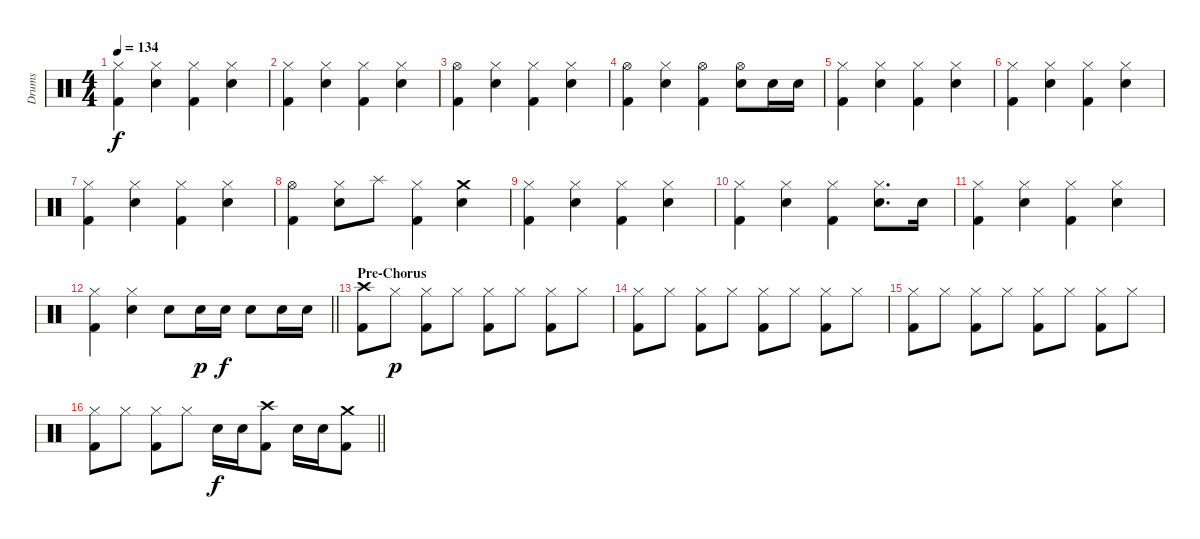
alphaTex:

\track ("Drums" "Drums") {instrument percussion}
\staff {score}
\articulation defaults
\ts (4 4)
\tempo 134
\clef neutral
\ks c
("Hi-Hat (closed)" "Kick (hit) 2").4{dy f} ("Hi-Hat (closed)" "Snare (hit) 2").4 ("Hi-Hat (closed)" "Kick (hit) 2").4 ("Hi-Hat (closed)" "Snare (hit) 2").4 |
("Hi-Hat (closed)" "Kick (hit) 2").4 ("Hi-Hat (closed)" "Snare (hit) 2").4 ("Hi-Hat (closed)" "Kick (hit) 2").4 ("Hi-Hat (closed)" "Snare (hit) 2").4 |
("Hi-Hat (open)" "Kick (hit) 2").4 ("Hi-Hat (closed)" "Snare (hit) 2").4 ("Hi-Hat (closed)" "Kick (hit) 2").4 ("Hi-Hat (closed)" "Snare (hit) 2").4 |
("Hi-Hat (open)" "Kick (hit) 2").4 ("Hi-Hat (closed)" "Snare (hit) 2").4 ("Hi-Hat (open)" "Kick (hit) 2").4 ("Hi-Hat (open)" "Snare (hit) 2").8 "Snare (hit) 2".16 "Snare (hit) 2".16 |
("Hi-Hat (closed)" "Kick (hit) 2").4 ("Hi-Hat (closed)" "Snare (hit) 2").4 ("Hi-Hat (closed)" "Kick (hit) 2").4 ("Hi-Hat (closed)" "Snare (hit) 2").4 |
("Hi-Hat (closed)" "Kick (hit) 2").4 ("Hi-Hat (closed)" "Snare (hit) 2").4 ("Hi-Hat (closed)" "Kick (hit) 2").4 ("Hi-Hat (closed)" "Snare (hit) 2").4 |
("Hi-Hat (closed)" "Kick (hit) 2").4 ("Hi-Hat (closed)" "Snare (hit) 2").4 ("Hi-Hat (closed)" "Kick (hit) 2").4 ("Hi-Hat (closed)" "Snare (hit) 2").4 |
("Hi-Hat (open)" "Kick (hit) 2").4 ("Hi-Hat (closed)" "Snare (hit) 2").8 "Splash (hit)".8 ("Hi-Hat (closed)" "Kick (hit) 2").4 ("Crash medium (hit)" "Snare (hit) 2").4 |
("Hi-Hat (closed)" "Kick (hit) 2").4 ("Hi-Hat (closed)" "Snare (hit) 2").4 ("Hi-Hat (closed)" "Kick (hit) 2").4 ("Hi-Hat (closed)" "Snare (hit) 2").4 |
("Hi-Hat (closed)" "Kick (hit) 2").4 ("Hi-Hat (closed)" "Snare (hit) 2").4 ("Hi-Hat (closed)" "Kick (hit) 2").4 ("Hi-Hat (closed)" "Snare (hit) 2").8{d} "Snare (hit) 2".16 |
("Hi-Hat (closed)" "Kick (hit) 2").4 ("Hi-Hat (closed)" "Snare (hit) 2").4 ("Hi-Hat (closed)" "Kick (hit) 2").4 ("Hi-Hat (closed)" "Snare (hit) 2").4 |
\barLineRight lightlight
("Hi-Hat (closed)" "Kick (hit) 2").4 ("Hi-Hat (closed)" "Snare (hit) 2").4 "Snare (hit) 2".8 "Snare (hit) 2".16{dy p} "Snare (hit) 2".16{dy f} "Snare (hit) 2".8 "Snare (hit) 2".16 "Snare (hit) 2".16 |
\section ("" "Pre-Chorus")
("Crash high (hit)" "Kick (hit) 2").8 "Hi-Hat (closed)".8{dy p} ("Hi-Hat (closed)" "Kick (hit) 2").8 "Hi-Hat (closed)".8 ("Hi-Hat (closed)" "Kick (hit) 2").8 "Hi-Hat (closed)".8 ("Hi-Hat (closed)" "Kick (hit) 2").8 "Hi-Hat (closed)".8 |
("Hi-Hat (closed)" "Kick (hit) 2").8 "Hi-Hat (closed)".8 ("Hi-Hat (closed)" "Kick (hit) 2").8 "Hi-Hat (closed)".8 ("Hi-Hat (closed)" "Kick (hit) 2").8 "Hi-Hat (closed)".8 ("Hi-Hat (closed)" "Kick (hit) 2").8 "Hi-Hat (closed)".8 |
("Hi-Hat (closed)" "Kick (hit) 2").8 "Hi-Hat (closed)".8 ("Hi-Hat (closed)" "Kick (hit) 2").8 "Hi-Hat (closed)".8 ("Hi-Hat (closed)" "Kick (hit) 2").8 "Hi-Hat (closed)".8 ("Hi-Hat (closed)" "Kick (hit) 2").8 "Hi-Hat (closed)".8 |
\barLineRight lightlight
("Hi-Hat (closed)" "Kick (hit) 2").8 "Hi-Hat (closed)".8 ("Hi-Hat (closed)" "Kick (hit) 2").8 "Hi-Hat (closed)".8 "Snare (hit) 2".16{dy f} "Snare (hit) 2".16 ("Crash high (hit)" "Kick (hit) 2").8 "Snare (hit) 2".16 "Snare (hit) 2".16 ("Crash medium (hit)" "Kick (hit) 2").8
